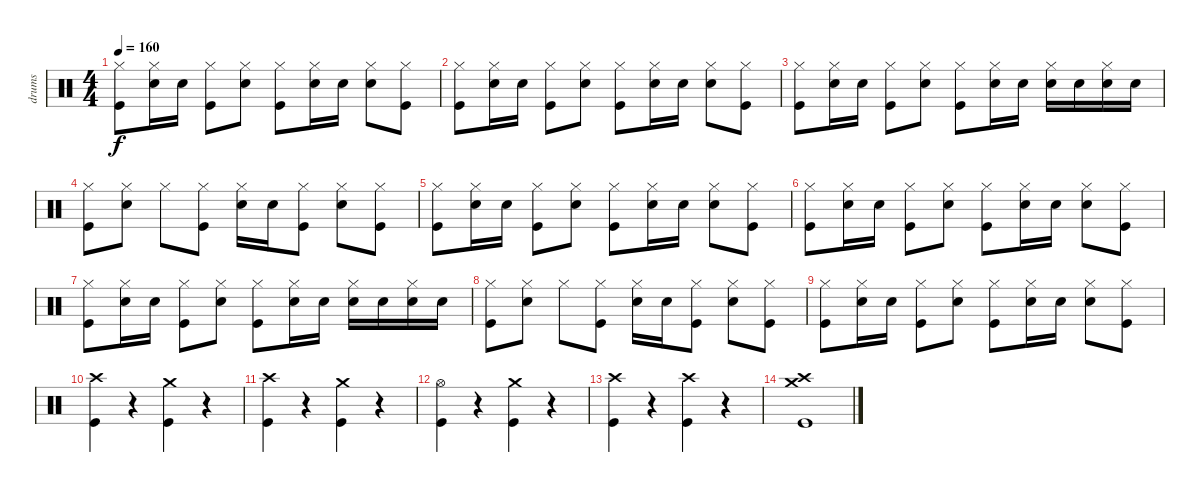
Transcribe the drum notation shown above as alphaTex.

\track ("drums" "drums") {instrument percussion}
\staff {score}
\articulation defaults
\ts (4 4)
\tempo 160
\clef neutral
\ks c
("Hi-Hat (closed)" "Kick (hit)").8{dy f} ("Hi-Hat (closed)" "Electric Snare (hit)").16 "Electric Snare (hit)".16 ("Hi-Hat (closed)" "Kick (hit)").8 ("Hi-Hat (closed)" "Electric Snare (hit)").8 ("Hi-Hat (closed)" "Kick (hit)").8 ("Hi-Hat (closed)" "Electric Snare (hit)").16 "Electric Snare (hit)".16 ("Hi-Hat (closed)" "Electric Snare (hit)").8 ("Hi-Hat (closed)" "Kick (hit)").8 |
("Hi-Hat (closed)" "Kick (hit)").8 ("Hi-Hat (closed)" "Electric Snare (hit)").16 "Electric Snare (hit)".16 ("Hi-Hat (closed)" "Kick (hit)").8 ("Hi-Hat (closed)" "Electric Snare (hit)").8 ("Hi-Hat (closed)" "Kick (hit)").8 ("Hi-Hat (closed)" "Electric Snare (hit)").16 "Electric Snare (hit)".16 ("Hi-Hat (closed)" "Electric Snare (hit)").8 ("Hi-Hat (closed)" "Kick (hit)").8 |
("Hi-Hat (closed)" "Kick (hit)").8 ("Hi-Hat (closed)" "Electric Snare (hit)").16 "Electric Snare (hit)".16 ("Hi-Hat (closed)" "Kick (hit)").8 ("Hi-Hat (closed)" "Electric Snare (hit)").8 ("Hi-Hat (closed)" "Kick (hit)").8 ("Hi-Hat (closed)" "Electric Snare (hit)").16 "Electric Snare (hit)".16 ("Hi-Hat (closed)" "Electric Snare (hit)").16 "Electric Snare (hit)".16 ("Hi-Hat (closed)" "Electric Snare (hit)").16 "Electric Snare (hit)".16 |
("Hi-Hat (closed)" "Kick (hit)").8 ("Hi-Hat (closed)" "Electric Snare (hit)").8 "Hi-Hat (closed)".8 ("Hi-Hat (closed)" "Kick (hit)").8 ("Hi-Hat (closed)" "Electric Snare (hit)").16 "Electric Snare (hit)".16 ("Hi-Hat (closed)" "Kick (hit)").8 ("Hi-Hat (closed)" "Electric Snare (hit)").8 ("Hi-Hat (closed)" "Kick (hit)").8 |
("Hi-Hat (closed)" "Kick (hit)").8 ("Hi-Hat (closed)" "Electric Snare (hit)").16 "Electric Snare (hit)".16 ("Hi-Hat (closed)" "Kick (hit)").8 ("Hi-Hat (closed)" "Electric Snare (hit)").8 ("Hi-Hat (closed)" "Kick (hit)").8 ("Hi-Hat (closed)" "Electric Snare (hit)").16 "Electric Snare (hit)".16 ("Hi-Hat (closed)" "Electric Snare (hit)").8 ("Hi-Hat (closed)" "Kick (hit)").8 |
("Hi-Hat (closed)" "Kick (hit)").8 ("Hi-Hat (closed)" "Electric Snare (hit)").16 "Electric Snare (hit)".16 ("Hi-Hat (closed)" "Kick (hit)").8 ("Hi-Hat (closed)" "Electric Snare (hit)").8 ("Hi-Hat (closed)" "Kick (hit)").8 ("Hi-Hat (closed)" "Electric Snare (hit)").16 "Electric Snare (hit)".16 ("Hi-Hat (closed)" "Electric Snare (hit)").8 ("Hi-Hat (closed)" "Kick (hit)").8 |
("Hi-Hat (closed)" "Kick (hit)").8 ("Hi-Hat (closed)" "Electric Snare (hit)").16 "Electric Snare (hit)".16 ("Hi-Hat (closed)" "Kick (hit)").8 ("Hi-Hat (closed)" "Electric Snare (hit)").8 ("Hi-Hat (closed)" "Kick (hit)").8 ("Hi-Hat (closed)" "Electric Snare (hit)").16 "Electric Snare (hit)".16 ("Hi-Hat (closed)" "Electric Snare (hit)").16 "Electric Snare (hit)".16 ("Hi-Hat (closed)" "Electric Snare (hit)").16 "Electric Snare (hit)".16 |
("Hi-Hat (closed)" "Kick (hit)").8 ("Hi-Hat (closed)" "Electric Snare (hit)").8 "Hi-Hat (closed)".8 ("Hi-Hat (closed)" "Kick (hit)").8 ("Hi-Hat (closed)" "Electric Snare (hit)").16 "Electric Snare (hit)".16 ("Hi-Hat (closed)" "Kick (hit)").8 ("Hi-Hat (closed)" "Electric Snare (hit)").8 ("Hi-Hat (closed)" "Kick (hit)").8 |
("Hi-Hat (closed)" "Kick (hit)").8 ("Hi-Hat (closed)" "Electric Snare (hit)").16 "Electric Snare (hit)".16 ("Hi-Hat (closed)" "Kick (hit)").8 ("Hi-Hat (closed)" "Electric Snare (hit)").8 ("Hi-Hat (closed)" "Kick (hit)").8 ("Hi-Hat (closed)" "Electric Snare (hit)").16 "Electric Snare (hit)".16 ("Hi-Hat (closed)" "Electric Snare (hit)").8 ("Hi-Hat (closed)" "Kick (hit)").8 |
("Crash high (hit)" "Kick (hit)").4 r.4 ("Crash medium (hit)" "Kick (hit)").4 r.4 |
("Crash high (hit)" "Kick (hit)").4 r.4 ("Crash medium (hit)" "Kick (hit)").4 r.4 |
("Hi-Hat (open)" "Kick (hit)").4 r.4 ("Crash medium (hit)" "Kick (hit)").4 r.4 |
("Crash high (hit)" "Kick (hit)").4 r.4 ("Crash high (hit)" "Kick (hit)").4 r.4 |
("Crash medium (hit)" "Crash high (hit)" "Kick (hit)").1
